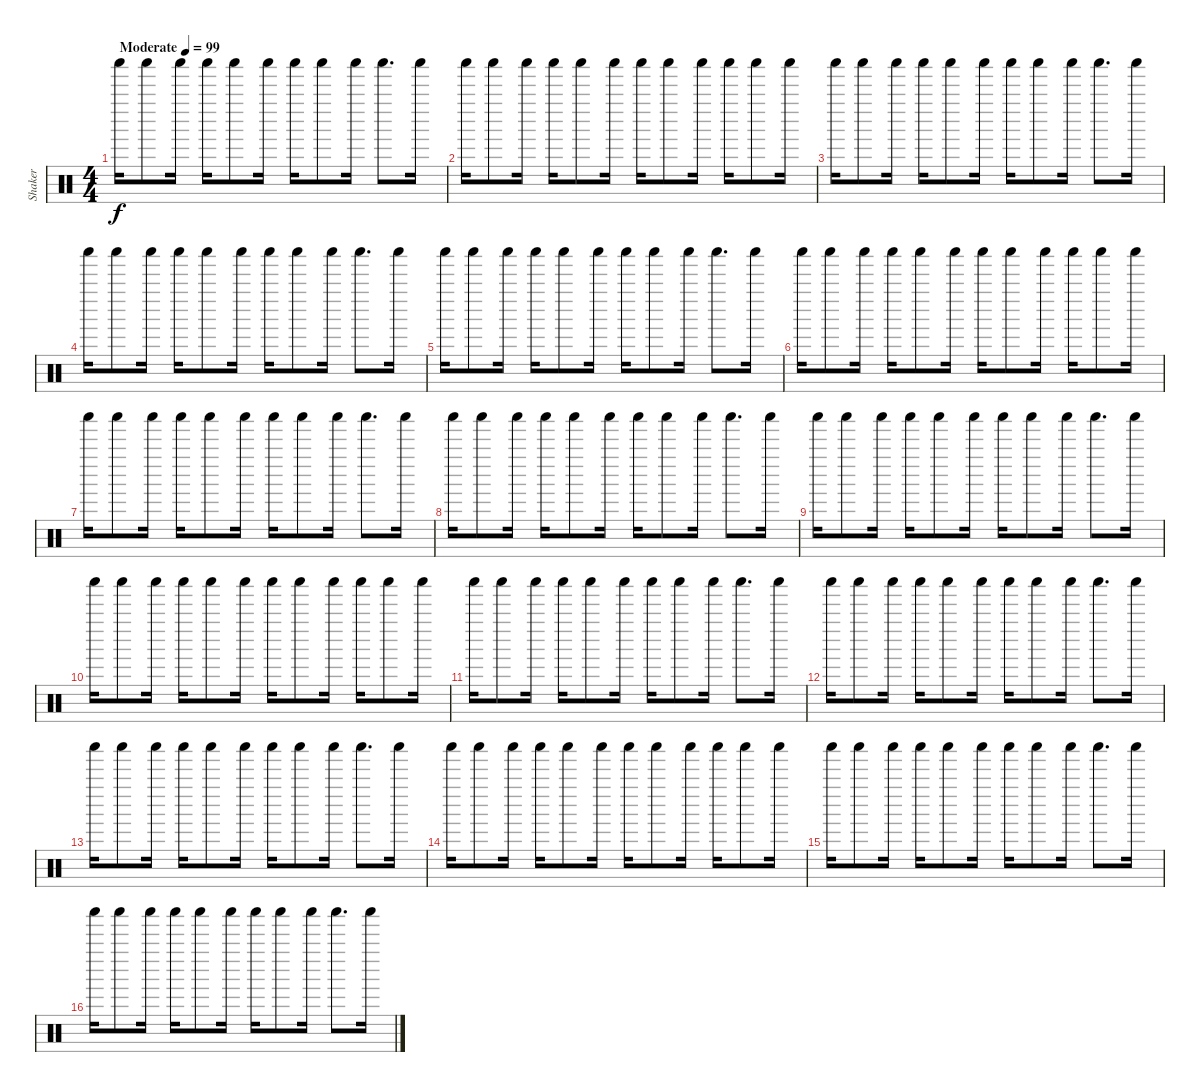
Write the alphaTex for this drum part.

\track ("Shaker" "Shaker") {instrument percussion}
\staff {score}
\articulation defaults
\ts (4 4)
\tempo (99 "Moderate")
\clef neutral
\ks c "Shaker (hit)".16{dy f} "Shaker (hit)".8 "Shaker (hit)".16 "Shaker (hit)".16 "Shaker (hit)".8 "Shaker (hit)".16 "Shaker (hit)".16 "Shaker (hit)".8 "Shaker (hit)".16 "Shaker (hit)".8{d} "Shaker (hit)".16
|
"Shaker (hit)".16 "Shaker (hit)".8 "Shaker (hit)".16 "Shaker (hit)".16 "Shaker (hit)".8 "Shaker (hit)".16 "Shaker (hit)".16 "Shaker (hit)".8 "Shaker (hit)".16 "Shaker (hit)".16 "Shaker (hit)".8 "Shaker (hit)".16 |
"Shaker (hit)".16 "Shaker (hit)".8 "Shaker (hit)".16 "Shaker (hit)".16 "Shaker (hit)".8 "Shaker (hit)".16 "Shaker (hit)".16 "Shaker (hit)".8 "Shaker (hit)".16 "Shaker (hit)".8{d} "Shaker (hit)".16 |
"Shaker (hit)".16 "Shaker (hit)".8 "Shaker (hit)".16 "Shaker (hit)".16 "Shaker (hit)".8 "Shaker (hit)".16 "Shaker (hit)".16 "Shaker (hit)".8 "Shaker (hit)".16 "Shaker (hit)".8{d} "Shaker (hit)".16 |
"Shaker (hit)".16 "Shaker (hit)".8 "Shaker (hit)".16 "Shaker (hit)".16 "Shaker (hit)".8 "Shaker (hit)".16 "Shaker (hit)".16 "Shaker (hit)".8 "Shaker (hit)".16 "Shaker (hit)".8{d} "Shaker (hit)".16 |
"Shaker (hit)".16 "Shaker (hit)".8 "Shaker (hit)".16 "Shaker (hit)".16 "Shaker (hit)".8 "Shaker (hit)".16 "Shaker (hit)".16 "Shaker (hit)".8 "Shaker (hit)".16 "Shaker (hit)".16 "Shaker (hit)".8 "Shaker (hit)".16 |
"Shaker (hit)".16 "Shaker (hit)".8 "Shaker (hit)".16 "Shaker (hit)".16 "Shaker (hit)".8 "Shaker (hit)".16 "Shaker (hit)".16 "Shaker (hit)".8 "Shaker (hit)".16 "Shaker (hit)".8{d} "Shaker (hit)".16 |
"Shaker (hit)".16 "Shaker (hit)".8 "Shaker (hit)".16 "Shaker (hit)".16 "Shaker (hit)".8 "Shaker (hit)".16 "Shaker (hit)".16 "Shaker (hit)".8 "Shaker (hit)".16 "Shaker (hit)".8{d} "Shaker (hit)".16 |
"Shaker (hit)".16 "Shaker (hit)".8 "Shaker (hit)".16 "Shaker (hit)".16 "Shaker (hit)".8 "Shaker (hit)".16 "Shaker (hit)".16 "Shaker (hit)".8 "Shaker (hit)".16 "Shaker (hit)".8{d} "Shaker (hit)".16 |
"Shaker (hit)".16 "Shaker (hit)".8 "Shaker (hit)".16 "Shaker (hit)".16 "Shaker (hit)".8 "Shaker (hit)".16 "Shaker (hit)".16 "Shaker (hit)".8 "Shaker (hit)".16 "Shaker (hit)".16 "Shaker (hit)".8 "Shaker (hit)".16 |
"Shaker (hit)".16 "Shaker (hit)".8 "Shaker (hit)".16 "Shaker (hit)".16 "Shaker (hit)".8 "Shaker (hit)".16 "Shaker (hit)".16 "Shaker (hit)".8 "Shaker (hit)".16 "Shaker (hit)".8{d} "Shaker (hit)".16 |
"Shaker (hit)".16 "Shaker (hit)".8 "Shaker (hit)".16 "Shaker (hit)".16 "Shaker (hit)".8 "Shaker (hit)".16 "Shaker (hit)".16 "Shaker (hit)".8 "Shaker (hit)".16 "Shaker (hit)".8{d} "Shaker (hit)".16 |
"Shaker (hit)".16 "Shaker (hit)".8 "Shaker (hit)".16 "Shaker (hit)".16 "Shaker (hit)".8 "Shaker (hit)".16 "Shaker (hit)".16 "Shaker (hit)".8 "Shaker (hit)".16 "Shaker (hit)".8{d} "Shaker (hit)".16 |
"Shaker (hit)".16 "Shaker (hit)".8 "Shaker (hit)".16 "Shaker (hit)".16 "Shaker (hit)".8 "Shaker (hit)".16 "Shaker (hit)".16 "Shaker (hit)".8 "Shaker (hit)".16 "Shaker (hit)".16 "Shaker (hit)".8 "Shaker (hit)".16 |
"Shaker (hit)".16 "Shaker (hit)".8 "Shaker (hit)".16 "Shaker (hit)".16 "Shaker (hit)".8 "Shaker (hit)".16 "Shaker (hit)".16 "Shaker (hit)".8 "Shaker (hit)".16 "Shaker (hit)".8{d} "Shaker (hit)".16 |
"Shaker (hit)".16 "Shaker (hit)".8 "Shaker (hit)".16 "Shaker (hit)".16 "Shaker (hit)".8 "Shaker (hit)".16 "Shaker (hit)".16 "Shaker (hit)".8 "Shaker (hit)".16 "Shaker (hit)".8{d} "Shaker (hit)".16
